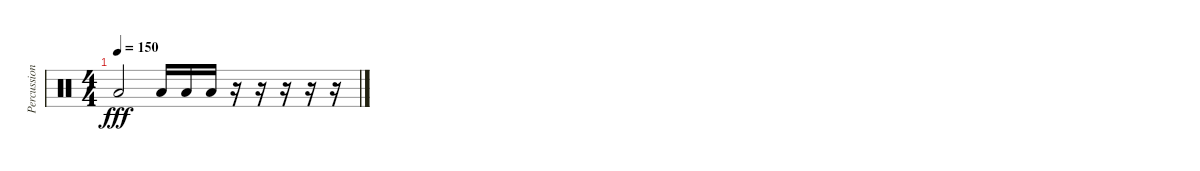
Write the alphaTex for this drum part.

\track ("Percussion" "Percussion") {instrument percussion}
\staff {score}
\articulation defaults
\ts (4 4)
\tempo 150
\clef neutral
\ks c "Low Floor Tom (hit)".2{dy fff} "Low Tom (hit)".16 "Low Tom (hit)".16 "Low Tom (hit)".16
r.16 r.16 r.16 r.16 r.16
